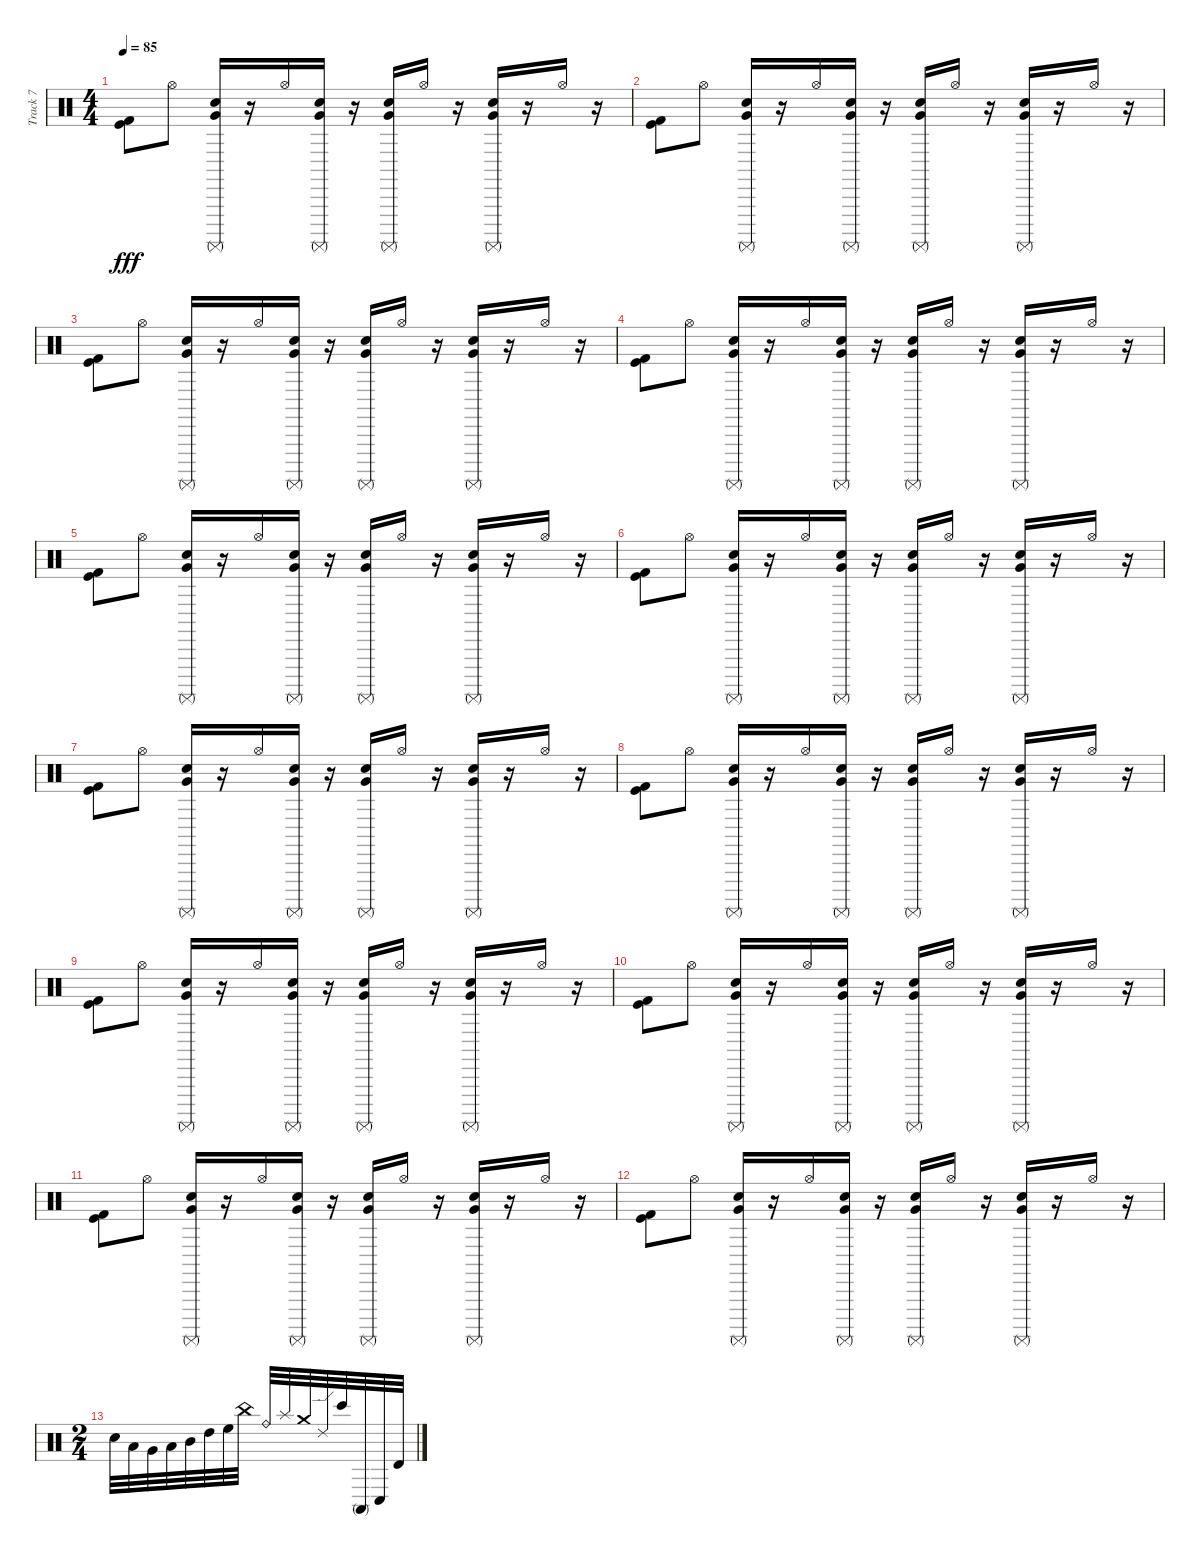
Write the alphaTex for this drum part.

\track ("Track 7" "Track 7") {instrument percussion}
\staff {score}
\articulation defaults
\ts (4 4)
\tempo 85
\clef neutral
\ks c
("Kick (hit)" "Kick (hit) 2").8{dy fff} "Hi-Hat (open)".8 ("Surdo (mute)" "Snare (hit) 2" "Very Low Tom (hit)").16 r.16 "Hi-Hat (open)".16 ("Surdo (mute)" "Snare (hit) 2" "Very Low Tom (hit)").16 r.16 ("Surdo (mute)" "Snare (hit) 2" "Very Low Tom (hit)").16 "Hi-Hat (open)".16 r.16 ("Surdo (mute)" "Snare (hit) 2" "Very Low Tom (hit)").16 r.16 "Hi-Hat (open)".16 r.16 |
("Kick (hit)" "Kick (hit) 2").8 "Hi-Hat (open)".8 ("Surdo (mute)" "Snare (hit) 2" "Very Low Tom (hit)").16 r.16 "Hi-Hat (open)".16 ("Surdo (mute)" "Snare (hit) 2" "Very Low Tom (hit)").16 r.16 ("Surdo (mute)" "Snare (hit) 2" "Very Low Tom (hit)").16 "Hi-Hat (open)".16 r.16 ("Surdo (mute)" "Snare (hit) 2" "Very Low Tom (hit)").16 r.16 "Hi-Hat (open)".16 r.16 |
("Kick (hit)" "Kick (hit) 2").8 "Hi-Hat (open)".8 ("Surdo (mute)" "Snare (hit) 2" "Very Low Tom (hit)").16 r.16 "Hi-Hat (open)".16 ("Surdo (mute)" "Snare (hit) 2" "Very Low Tom (hit)").16 r.16 ("Surdo (mute)" "Snare (hit) 2" "Very Low Tom (hit)").16 "Hi-Hat (open)".16 r.16 ("Surdo (mute)" "Snare (hit) 2" "Very Low Tom (hit)").16 r.16 "Hi-Hat (open)".16 r.16 |
("Kick (hit)" "Kick (hit) 2").8 "Hi-Hat (open)".8 ("Surdo (mute)" "Snare (hit) 2" "Very Low Tom (hit)").16 r.16 "Hi-Hat (open)".16 ("Surdo (mute)" "Snare (hit) 2" "Very Low Tom (hit)").16 r.16 ("Surdo (mute)" "Snare (hit) 2" "Very Low Tom (hit)").16 "Hi-Hat (open)".16 r.16 ("Surdo (mute)" "Snare (hit) 2" "Very Low Tom (hit)").16 r.16 "Hi-Hat (open)".16 r.16 |
("Kick (hit)" "Kick (hit) 2").8 "Hi-Hat (open)".8 ("Surdo (mute)" "Snare (hit) 2" "Very Low Tom (hit)").16 r.16 "Hi-Hat (open)".16 ("Surdo (mute)" "Snare (hit) 2" "Very Low Tom (hit)").16 r.16 ("Surdo (mute)" "Snare (hit) 2" "Very Low Tom (hit)").16 "Hi-Hat (open)".16 r.16 ("Surdo (mute)" "Snare (hit) 2" "Very Low Tom (hit)").16 r.16 "Hi-Hat (open)".16 r.16 |
("Kick (hit)" "Kick (hit) 2").8 "Hi-Hat (open)".8 ("Surdo (mute)" "Snare (hit) 2" "Very Low Tom (hit)").16 r.16 "Hi-Hat (open)".16 ("Surdo (mute)" "Snare (hit) 2" "Very Low Tom (hit)").16 r.16 ("Surdo (mute)" "Snare (hit) 2" "Very Low Tom (hit)").16 "Hi-Hat (open)".16 r.16 ("Surdo (mute)" "Snare (hit) 2" "Very Low Tom (hit)").16 r.16 "Hi-Hat (open)".16 r.16 |
("Kick (hit)" "Kick (hit) 2").8 "Hi-Hat (open)".8 ("Surdo (mute)" "Snare (hit) 2" "Very Low Tom (hit)").16 r.16 "Hi-Hat (open)".16 ("Surdo (mute)" "Snare (hit) 2" "Very Low Tom (hit)").16 r.16 ("Surdo (mute)" "Snare (hit) 2" "Very Low Tom (hit)").16 "Hi-Hat (open)".16 r.16 ("Surdo (mute)" "Snare (hit) 2" "Very Low Tom (hit)").16 r.16 "Hi-Hat (open)".16 r.16 |
("Kick (hit)" "Kick (hit) 2").8 "Hi-Hat (open)".8 ("Surdo (mute)" "Snare (hit) 2" "Very Low Tom (hit)").16 r.16 "Hi-Hat (open)".16 ("Surdo (mute)" "Snare (hit) 2" "Very Low Tom (hit)").16 r.16 ("Surdo (mute)" "Snare (hit) 2" "Very Low Tom (hit)").16 "Hi-Hat (open)".16 r.16 ("Surdo (mute)" "Snare (hit) 2" "Very Low Tom (hit)").16 r.16 "Hi-Hat (open)".16 r.16 |
("Kick (hit)" "Kick (hit) 2").8 "Hi-Hat (open)".8 ("Surdo (mute)" "Snare (hit) 2" "Very Low Tom (hit)").16 r.16 "Hi-Hat (open)".16 ("Surdo (mute)" "Snare (hit) 2" "Very Low Tom (hit)").16 r.16 ("Surdo (mute)" "Snare (hit) 2" "Very Low Tom (hit)").16 "Hi-Hat (open)".16 r.16 ("Surdo (mute)" "Snare (hit) 2" "Very Low Tom (hit)").16 r.16 "Hi-Hat (open)".16 r.16 |
("Kick (hit)" "Kick (hit) 2").8 "Hi-Hat (open)".8 ("Surdo (mute)" "Snare (hit) 2" "Very Low Tom (hit)").16 r.16 "Hi-Hat (open)".16 ("Surdo (mute)" "Snare (hit) 2" "Very Low Tom (hit)").16 r.16 ("Surdo (mute)" "Snare (hit) 2" "Very Low Tom (hit)").16 "Hi-Hat (open)".16 r.16 ("Surdo (mute)" "Snare (hit) 2" "Very Low Tom (hit)").16 r.16 "Hi-Hat (open)".16 r.16 |
("Kick (hit)" "Kick (hit) 2").8 "Hi-Hat (open)".8 ("Surdo (mute)" "Snare (hit) 2" "Very Low Tom (hit)").16 r.16 "Hi-Hat (open)".16 ("Surdo (mute)" "Snare (hit) 2" "Very Low Tom (hit)").16 r.16 ("Surdo (mute)" "Snare (hit) 2" "Very Low Tom (hit)").16 "Hi-Hat (open)".16 r.16 ("Surdo (mute)" "Snare (hit) 2" "Very Low Tom (hit)").16 r.16 "Hi-Hat (open)".16 r.16 |
("Kick (hit)" "Kick (hit) 2").8 "Hi-Hat (open)".8 ("Surdo (mute)" "Snare (hit) 2" "Very Low Tom (hit)").16 r.16 "Hi-Hat (open)".16 ("Surdo (mute)" "Snare (hit) 2" "Very Low Tom (hit)").16 r.16 ("Surdo (mute)" "Snare (hit) 2" "Very Low Tom (hit)").16 "Hi-Hat (open)".16 r.16 ("Surdo (mute)" "Snare (hit) 2" "Very Low Tom (hit)").16 r.16 "Hi-Hat (open)".16 r.16 |
\ts (2 4)
"Electric Snare (hit)".32 "Low Floor Tom (hit)".32 "Very Low Tom (hit)".32 "Low Tom (hit)".32 "Mid Tom (hit)".32 "High Tom (hit)".32 "High Floor Tom (hit)".32 "China (hit)".32 "Ride (bell)".32 "Splash (hit)".32 "Crash medium (hit)".32 "Ride (edge) 2".32 "Bongo High (hit)".32 "Conga high (mute)".32 "Conga low (hit)".32 "Timbale high (hit)".32
